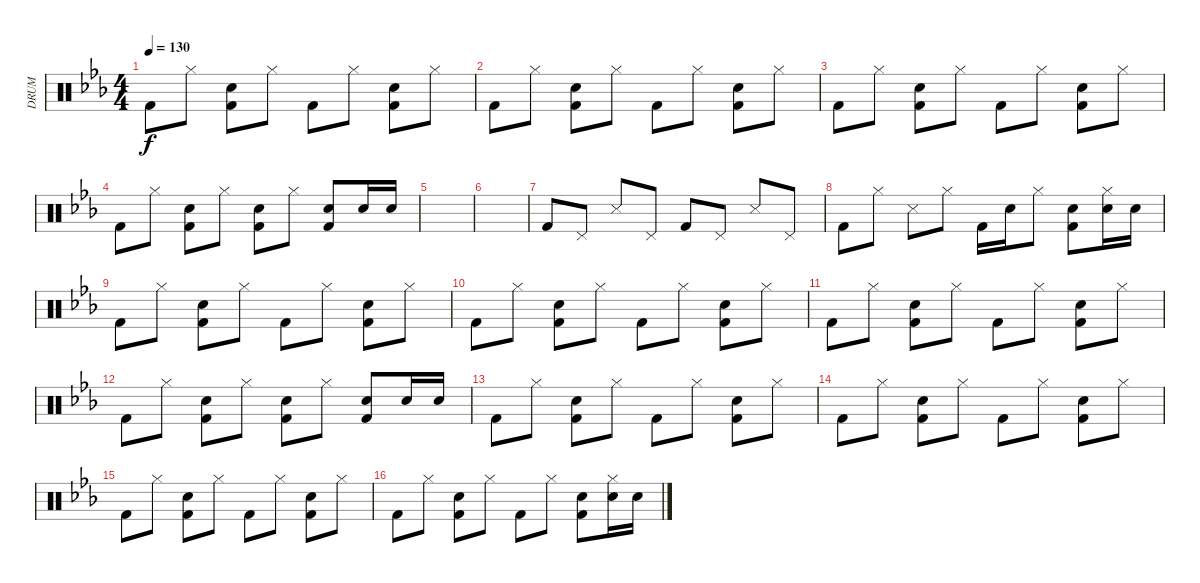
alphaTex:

\track ("DRUM" "DRUM") {instrument percussion}
\staff {score}
\articulation defaults
\ts (4 4)
\tempo 130
\clef neutral
\ks eb "Kick (hit) 2".8{dy f} "Hi-Hat (closed)".8
("Hand Clap (hit)" "Kick (hit) 2").8 "Hi-Hat (closed)".8 "Kick (hit) 2".8 "Hi-Hat (closed)".8 ("Hand Clap (hit)" "Kick (hit) 2").8 "Hi-Hat (closed)".8 |
"Kick (hit) 2".8 "Hi-Hat (closed)".8 ("Hand Clap (hit)" "Kick (hit) 2").8 "Hi-Hat (closed)".8 "Kick (hit) 2".8 "Hi-Hat (closed)".8 ("Hand Clap (hit)" "Kick (hit) 2").8 "Hi-Hat (closed)".8 |
"Kick (hit) 2".8 "Hi-Hat (closed)".8 ("Hand Clap (hit)" "Kick (hit) 2").8 "Hi-Hat (closed)".8 "Kick (hit) 2".8 "Hi-Hat (closed)".8 ("Hand Clap (hit)" "Kick (hit) 2").8 "Hi-Hat (closed)".8 |
"Kick (hit) 2".8 "Hi-Hat (closed)".8 ("Hand Clap (hit)" "Kick (hit) 2").8 "Hi-Hat (closed)".8 ("Hand Clap (hit)" "Kick (hit) 2").8 "Hi-Hat (closed)".8 ("Hand Clap (hit)" "Kick (hit) 2").8 "Hand Clap (hit)".16 "Hand Clap (hit)".16 |
|
|
"Kick (hit) 2".8 "Pedal Hi-Hat (hit)".8 "Metronome (hit)".8 "Pedal Hi-Hat (hit)".8 "Kick (hit) 2".8 "Pedal Hi-Hat (hit)".8 "Metronome (hit)".8 "Pedal Hi-Hat (hit)".8 |
"Kick (hit) 2".8 "Hi-Hat (closed)".8 "Metronome (hit)".8 "Hi-Hat (closed)".8 "Kick (hit) 2".16 "Hand Clap (hit)".16 "Hi-Hat (closed)".8 ("Hand Clap (hit)" "Kick (hit) 2").8 ("Hi-Hat (closed)" "Hand Clap (hit)").16 "Hand Clap (hit)".16 |
"Kick (hit) 2".8 "Hi-Hat (closed)".8 ("Hand Clap (hit)" "Kick (hit) 2").8 "Hi-Hat (closed)".8 "Kick (hit) 2".8 "Hi-Hat (closed)".8 ("Hand Clap (hit)" "Kick (hit) 2").8 "Hi-Hat (closed)".8 |
"Kick (hit) 2".8 "Hi-Hat (closed)".8 ("Hand Clap (hit)" "Kick (hit) 2").8 "Hi-Hat (closed)".8 "Kick (hit) 2".8 "Hi-Hat (closed)".8 ("Hand Clap (hit)" "Kick (hit) 2").8 "Hi-Hat (closed)".8 |
"Kick (hit) 2".8 "Hi-Hat (closed)".8 ("Hand Clap (hit)" "Kick (hit) 2").8 "Hi-Hat (closed)".8 "Kick (hit) 2".8 "Hi-Hat (closed)".8 ("Hand Clap (hit)" "Kick (hit) 2").8 "Hi-Hat (closed)".8 |
"Kick (hit) 2".8 "Hi-Hat (closed)".8 ("Hand Clap (hit)" "Kick (hit) 2").8 "Hi-Hat (closed)".8 ("Hand Clap (hit)" "Kick (hit) 2").8 "Hi-Hat (closed)".8 ("Hand Clap (hit)" "Kick (hit) 2").8 "Hand Clap (hit)".16 "Hand Clap (hit)".16 |
"Kick (hit) 2".8 "Hi-Hat (closed)".8 ("Hand Clap (hit)" "Kick (hit) 2").8 "Hi-Hat (closed)".8 "Kick (hit) 2".8 "Hi-Hat (closed)".8 ("Hand Clap (hit)" "Kick (hit) 2").8 "Hi-Hat (closed)".8 |
"Kick (hit) 2".8 "Hi-Hat (closed)".8 ("Hand Clap (hit)" "Kick (hit) 2").8 "Hi-Hat (closed)".8 "Kick (hit) 2".8 "Hi-Hat (closed)".8 ("Hand Clap (hit)" "Kick (hit) 2").8 "Hi-Hat (closed)".8 |
"Kick (hit) 2".8 "Hi-Hat (closed)".8 ("Hand Clap (hit)" "Kick (hit) 2").8 "Hi-Hat (closed)".8 "Kick (hit) 2".8 "Hi-Hat (closed)".8 ("Hand Clap (hit)" "Kick (hit) 2").8 "Hi-Hat (closed)".8 |
"Kick (hit) 2".8 "Hi-Hat (closed)".8 ("Hand Clap (hit)" "Kick (hit) 2").8 "Hi-Hat (closed)".8 "Kick (hit) 2".8 "Hi-Hat (closed)".8 ("Hand Clap (hit)" "Kick (hit) 2").8 ("Hi-Hat (closed)" "Hand Clap (hit)").16 "Hand Clap (hit)".16
